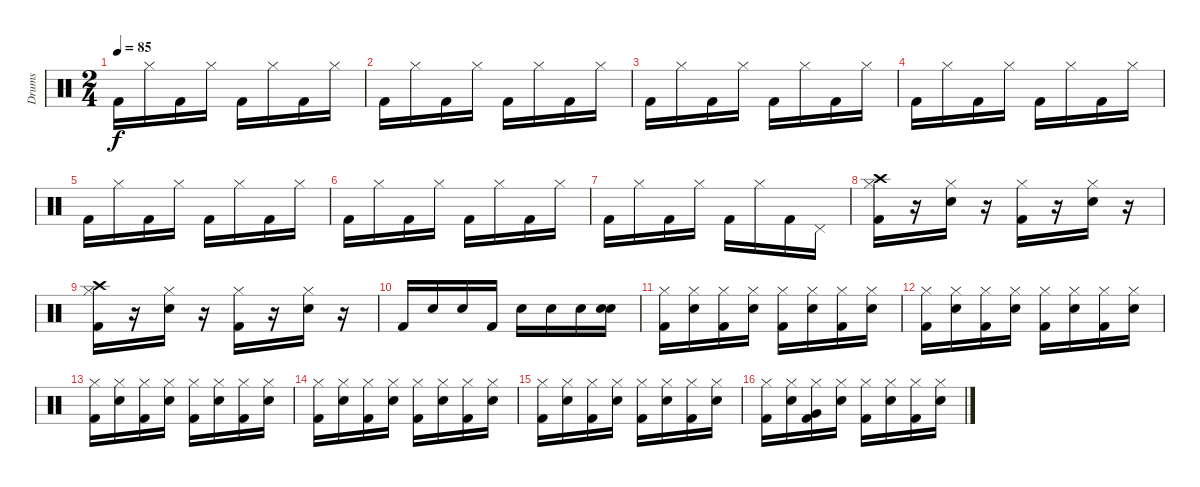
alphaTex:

\track ("Drums" "Drums") {instrument percussion}
\staff {score}
\articulation defaults
\ts (2 4)
\tempo 85
\clef neutral
\ks c "Kick (hit) 2".16{dy f} "Hi-Hat (closed)".16 "Kick (hit) 2".16 "Hi-Hat (closed)".16 "Kick (hit) 2".16 "Hi-Hat (closed)".16 "Kick (hit) 2".16 "Hi-Hat (closed)".16
|
"Kick (hit) 2".16 "Hi-Hat (closed)".16 "Kick (hit) 2".16 "Hi-Hat (closed)".16 "Kick (hit) 2".16 "Hi-Hat (closed)".16 "Kick (hit) 2".16 "Hi-Hat (closed)".16 |
"Kick (hit) 2".16 "Hi-Hat (closed)".16 "Kick (hit) 2".16 "Hi-Hat (closed)".16 "Kick (hit) 2".16 "Hi-Hat (closed)".16 "Kick (hit) 2".16 "Hi-Hat (closed)".16 |
"Kick (hit) 2".16 "Hi-Hat (closed)".16 "Kick (hit) 2".16 "Hi-Hat (closed)".16 "Kick (hit) 2".16 "Hi-Hat (closed)".16 "Kick (hit) 2".16 "Hi-Hat (closed)".16 |
"Kick (hit) 2".16 "Hi-Hat (closed)".16 "Kick (hit) 2".16 "Hi-Hat (closed)".16 "Kick (hit) 2".16 "Hi-Hat (closed)".16 "Kick (hit) 2".16 "Hi-Hat (closed)".16 |
"Kick (hit) 2".16 "Hi-Hat (closed)".16 "Kick (hit) 2".16 "Hi-Hat (closed)".16 "Kick (hit) 2".16 "Hi-Hat (closed)".16 "Kick (hit) 2".16 "Hi-Hat (closed)".16 |
"Kick (hit) 2".16 "Hi-Hat (closed)".16 "Kick (hit) 2".16 "Hi-Hat (closed)".16 "Kick (hit) 2".16 "Hi-Hat (closed)".16 "Kick (hit) 2".16 "Pedal Hi-Hat (hit)".16 |
("Crash high (hit)" "Kick (hit) 2" "Hi-Hat (closed)").16 r.16 ("Hi-Hat (closed)" "Snare (hit) 2").16 r.16 ("Kick (hit) 2" "Hi-Hat (closed)").16 r.16 ("Hi-Hat (closed)" "Snare (hit) 2").16 r.16 |
("Hi-Hat (closed)" "Kick (hit) 2" "Crash high (hit)").16 r.16 ("Snare (hit) 2" "Hi-Hat (closed)").16 r.16 ("Kick (hit) 2" "Hi-Hat (closed)").16 r.16 ("Hi-Hat (closed)" "Snare (hit) 2").16 r.16 |
"Kick (hit) 2".16 "Snare (hit) 2".16 "Snare (hit) 2".16 "Kick (hit) 2".16 "Snare (hit) 2".16 "Snare (hit) 2".16 "Snare (hit) 2".16 ("Snare (hit) 2" "Snare (hit) 2").16 |
("Kick (hit) 2" "Hi-Hat (closed)").16 ("Hi-Hat (closed)" "Snare (hit) 2").16 ("Kick (hit) 2" "Hi-Hat (closed)").16 ("Snare (hit) 2" "Hi-Hat (closed)").16 ("Hi-Hat (closed)" "Kick (hit) 2").16 ("Snare (hit) 2" "Hi-Hat (closed)").16 ("Kick (hit) 2" "Hi-Hat (closed)").16 ("Snare (hit) 2" "Hi-Hat (closed)").16 |
("Hi-Hat (closed)" "Kick (hit) 2").16 ("Hi-Hat (closed)" "Snare (hit) 2").16 ("Hi-Hat (closed)" "Kick (hit) 2").16 ("Snare (hit) 2" "Hi-Hat (closed)").16 ("Hi-Hat (closed)" "Kick (hit) 2").16 ("Hi-Hat (closed)" "Snare (hit) 2").16 ("Kick (hit) 2" "Hi-Hat (closed)").16 ("Snare (hit) 2" "Hi-Hat (closed)").16 |
("Hi-Hat (closed)" "Kick (hit) 2").16 ("Hi-Hat (closed)" "Snare (hit) 2").16 ("Kick (hit) 2" "Hi-Hat (closed)").16 ("Hi-Hat (closed)" "Snare (hit) 2").16 ("Kick (hit) 2" "Hi-Hat (closed)").16 ("Snare (hit) 2" "Hi-Hat (closed)").16 ("Hi-Hat (closed)" "Kick (hit) 2").16 ("Hi-Hat (closed)" "Snare (hit) 2").16 |
("Hi-Hat (closed)" "Kick (hit) 2").16 ("Hi-Hat (closed)" "Snare (hit) 2").16 ("Hi-Hat (closed)" "Kick (hit) 2").16 ("Hi-Hat (closed)" "Snare (hit) 2").16 ("Hi-Hat (closed)" "Kick (hit) 2").16 ("Snare (hit) 2" "Hi-Hat (closed)").16 ("Hi-Hat (closed)" "Kick (hit) 2").16 ("Snare (hit) 2" "Hi-Hat (closed)").16 |
("Kick (hit) 2" "Hi-Hat (closed)").16 ("Hi-Hat (closed)" "Snare (hit) 2").16 ("Hi-Hat (closed)" "Kick (hit) 2").16 ("Hi-Hat (closed)" "Snare (hit) 2").16 ("Hi-Hat (closed)" "Kick (hit) 2").16 ("Snare (hit) 2" "Hi-Hat (closed)").16 ("Hi-Hat (closed)" "Kick (hit) 2").16 ("Snare (hit) 2" "Hi-Hat (closed)").16 |
("Kick (hit) 2" "Hi-Hat (closed)").16 ("Snare (hit) 2" "Hi-Hat (closed)").16 ("Very Low Tom (hit)" "Hi-Hat (closed)" "Kick (hit) 2").16 ("Snare (hit) 2" "Hi-Hat (closed)").16 ("Hi-Hat (closed)" "Kick (hit) 2").16 ("Hi-Hat (closed)" "Snare (hit) 2").16 ("Kick (hit) 2" "Hi-Hat (closed)").16 ("Hi-Hat (closed)" "Snare (hit) 2").16
